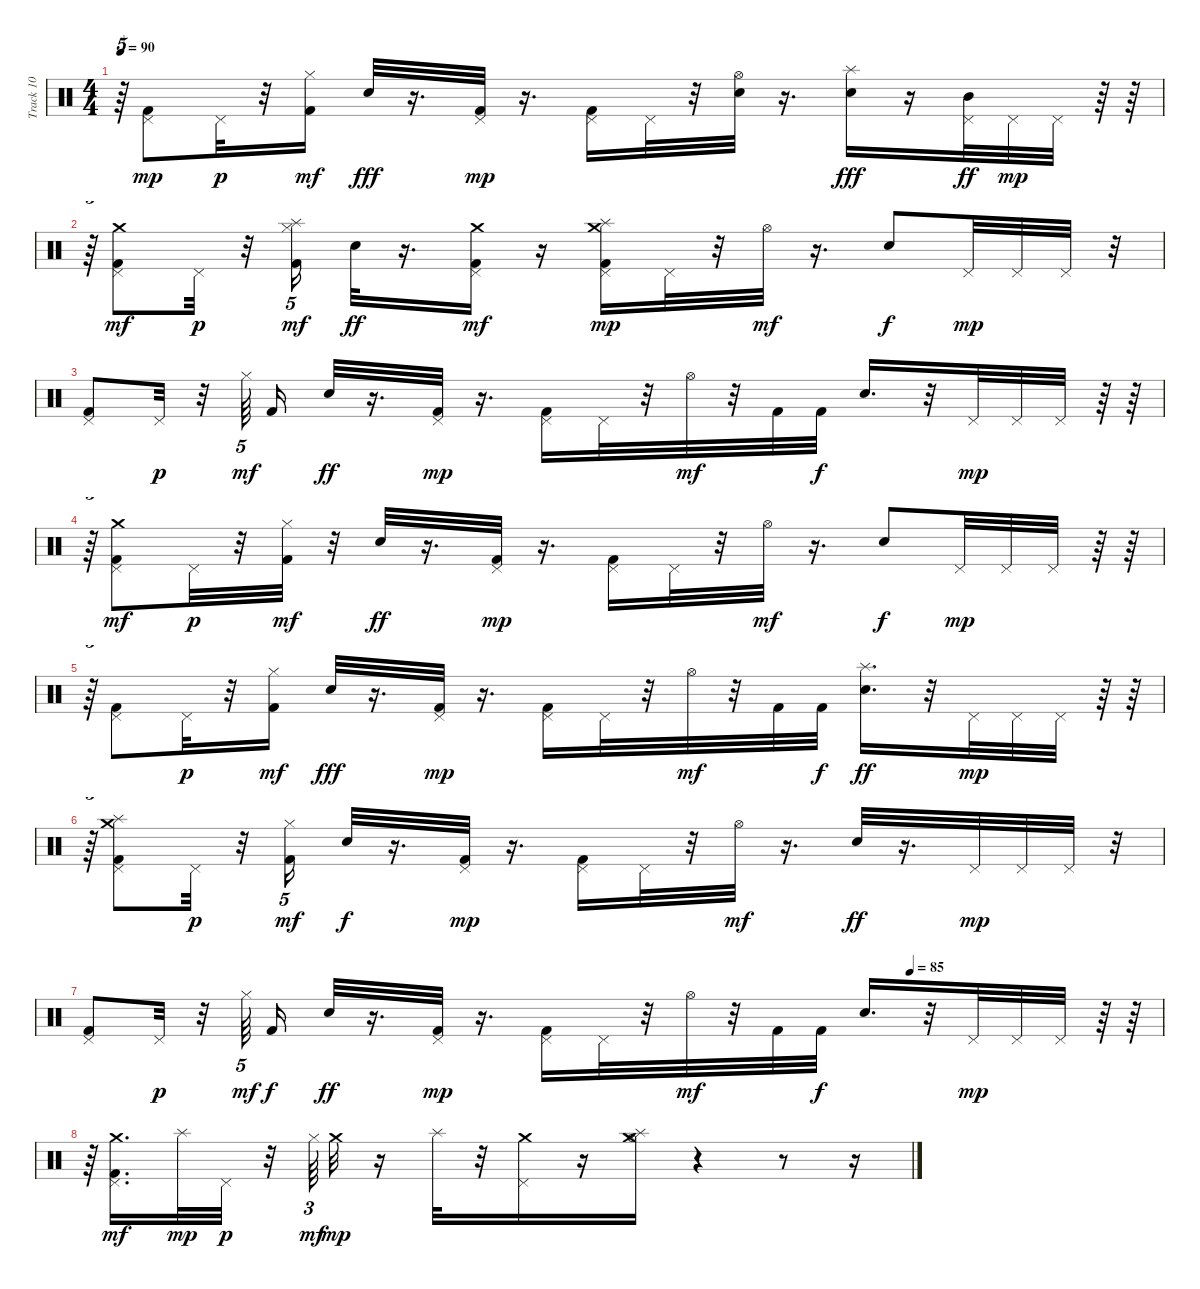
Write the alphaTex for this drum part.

\track ("Track 10" "Track 10") {instrument percussion}
\staff {score}
\articulation defaults
\ts (4 4)
\tempo 90
\clef neutral
\ks c
r.64{tu (5 4) dy mp} ("Pedal Hi-Hat (hit)" "Kick (hit) 2").8 "Pedal Hi-Hat (hit)".32{dy p} r.32 ("Hi-Hat (closed)" "Kick (hit) 2").16{dy mf} "Snare (hit) 2".32{dy fff} r.16{d} ("Pedal Hi-Hat (hit)" "Kick (hit) 2").32{dy mp} r.16{d} ("Pedal Hi-Hat (hit)" "Kick (hit) 2").16 "Pedal Hi-Hat (hit)".32 r.32 ("Hi-Hat (open)" "Snare (hit) 2").32 r.16{d} ("Splash (hit)" "Snare (hit) 2").16{dy fff} r.16 ("Pedal Hi-Hat (hit)" "Mid Tom (hit)").32{dy ff} "Pedal Hi-Hat (hit)".32{dy mp} "Pedal Hi-Hat (hit)".32 r.64 r.64 |
r.64{tu (5 4)} ("Pedal Hi-Hat (hit)" "Kick (hit) 2" "Crash medium (hit)").8{dy mf} "Pedal Hi-Hat (hit)".32{dy p} r.32 ("Hi-Hat (closed)" "Splash (hit)" "Kick (hit) 2").16{tu (5 4) dy mf} "Snare (hit) 2".32{dy ff} r.16{d} ("Pedal Hi-Hat (hit)" "Kick (hit) 2" "Crash medium (hit)").16{dy mf} r.16 ("Pedal Hi-Hat (hit)" "Kick (hit) 2" "Splash (hit)" "Crash medium (hit)").16{dy mp} "Pedal Hi-Hat (hit)".32 r.32 "Hi-Hat (open)".32{dy mf} r.16{d} "Snare (hit) 2".8{dy f} "Pedal Hi-Hat (hit)".32{dy mp} "Pedal Hi-Hat (hit)".32 "Pedal Hi-Hat (hit)".32 r.32 |
("Pedal Hi-Hat (hit)" "Kick (hit) 2").8 "Pedal Hi-Hat (hit)".32{dy p} r.32 "Hi-Hat (closed)".64{tu (5 4) dy mf} "Kick (hit) 2".16 "Snare (hit) 2".32{dy ff} r.16{d} ("Pedal Hi-Hat (hit)" "Kick (hit) 2").32{dy mp} r.16{d} ("Pedal Hi-Hat (hit)" "Kick (hit) 2").16 "Pedal Hi-Hat (hit)".32 r.32 "Hi-Hat (open)".32{dy mf} r.32 "Kick (hit) 2".32 "Kick (hit) 2".32{dy f} "Snare (hit) 2".16{d} r.32 "Pedal Hi-Hat (hit)".32{dy mp} "Pedal Hi-Hat (hit)".32 "Pedal Hi-Hat (hit)".32 r.64 r.64 |
r.64{tu (5 4)} ("Pedal Hi-Hat (hit)" "Crash medium (hit)" "Kick (hit) 2").8{dy mf} "Pedal Hi-Hat (hit)".32{dy p} r.32 ("Hi-Hat (closed)" "Kick (hit) 2").32{dy mf} r.32 "Snare (hit) 2".32{dy ff} r.16{d} ("Pedal Hi-Hat (hit)" "Kick (hit) 2").32{dy mp} r.16{d} ("Pedal Hi-Hat (hit)" "Kick (hit) 2").16 "Pedal Hi-Hat (hit)".32 r.32 "Hi-Hat (open)".32{dy mf} r.16{d} "Snare (hit) 2".8{dy f} "Pedal Hi-Hat (hit)".32{dy mp} "Pedal Hi-Hat (hit)".32 "Pedal Hi-Hat (hit)".32 r.64 r.64 |
r.64{tu (5 4)} ("Pedal Hi-Hat (hit)" "Kick (hit) 2").8 "Pedal Hi-Hat (hit)".32{dy p} r.32 ("Hi-Hat (closed)" "Kick (hit) 2").16{dy mf} "Snare (hit) 2".32{dy fff} r.16{d} ("Pedal Hi-Hat (hit)" "Kick (hit) 2").32{dy mp} r.16{d} ("Pedal Hi-Hat (hit)" "Kick (hit) 2").16 "Pedal Hi-Hat (hit)".32 r.32 "Hi-Hat (open)".32{dy mf} r.32 "Kick (hit) 2".32 "Kick (hit) 2".32{dy f} ("Splash (hit)" "Snare (hit) 2").16{d dy ff} r.32 "Pedal Hi-Hat (hit)".32{dy mp} "Pedal Hi-Hat (hit)".32 "Pedal Hi-Hat (hit)".32 r.64 r.64 |
r.64{tu (5 4)} ("Pedal Hi-Hat (hit)" "Crash medium (hit)" "Splash (hit)" "Kick (hit) 2").8 "Pedal Hi-Hat (hit)".32{dy p} r.32 ("Hi-Hat (closed)" "Kick (hit) 2").16{tu (5 4) dy mf} "Snare (hit) 2".32{dy f} r.16{d} ("Pedal Hi-Hat (hit)" "Kick (hit) 2").32{dy mp} r.16{d} ("Pedal Hi-Hat (hit)" "Kick (hit) 2").16 "Pedal Hi-Hat (hit)".32 r.32 "Hi-Hat (open)".32{dy mf} r.16{d} "Snare (hit) 2".32{dy ff} r.16{d} "Pedal Hi-Hat (hit)".32{dy mp} "Pedal Hi-Hat (hit)".32 "Pedal Hi-Hat (hit)".32 r.32 |
\tempo (85 0.765625)
("Pedal Hi-Hat (hit)" "Kick (hit) 2").8 "Pedal Hi-Hat (hit)".32{dy p} r.32 "Hi-Hat (closed)".64{tu (5 4) dy mf} "Kick (hit) 2".16{dy f} "Snare (hit) 2".32{dy ff} r.16{d} ("Pedal Hi-Hat (hit)" "Kick (hit) 2").32{dy mp} r.16{d} ("Pedal Hi-Hat (hit)" "Kick (hit) 2").16 "Pedal Hi-Hat (hit)".32 r.32 "Hi-Hat (open)".32{dy mf} r.32 "Kick (hit) 2".32 "Kick (hit) 2".32{dy f} "Snare (hit) 2".16{d} r.32 "Pedal Hi-Hat (hit)".32{dy mp} "Pedal Hi-Hat (hit)".32 "Pedal Hi-Hat (hit)".32 r.64 r.64 |
r.64{tu (5 4)} ("Pedal Hi-Hat (hit)" "Crash medium (hit)" "Kick (hit) 2").16{d dy mf} "Splash (hit)".32{dy mp} "Pedal Hi-Hat (hit)".32{dy p} r.32 "Hi-Hat (closed)".64{tu (3 2) dy mf} "Crash medium (hit)".32{dy mp} r.16 "Splash (hit)".32 r.32 ("Crash medium (hit)" "Pedal Hi-Hat (hit)").16 r.16 ("Hi-Hat (open)" "Splash (hit)" "Crash medium (hit)").16 r.4 r.8 r.16
